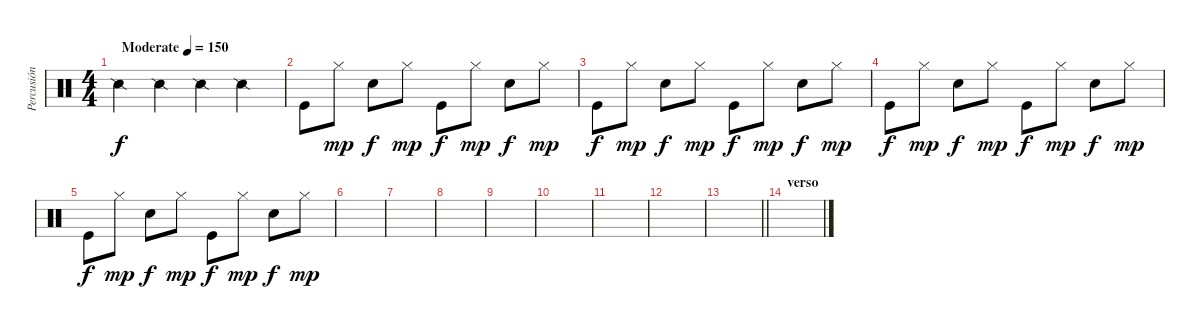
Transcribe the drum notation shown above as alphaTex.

\track ("Percusión" "Percusión") {instrument percussion}
\staff {score}
\articulation defaults
\ts (4 4)
\tempo (150 "Moderate")
\clef neutral
\ks c "Snare (side stick) 2".4{dy f} "Snare (side stick) 2".4 "Snare (side stick) 2".4 "Snare (side stick) 2".4
|
"Kick (hit)".8 "Hi-Hat (closed)".8{dy mp} "Snare (hit) 2".8{dy f} "Hi-Hat (closed)".8{dy mp} "Kick (hit)".8{dy f} "Hi-Hat (closed)".8{dy mp} "Snare (hit) 2".8{dy f} "Hi-Hat (closed)".8{dy mp} |
"Kick (hit)".8{dy f} "Hi-Hat (closed)".8{dy mp} "Snare (hit) 2".8{dy f} "Hi-Hat (closed)".8{dy mp} "Kick (hit)".8{dy f} "Hi-Hat (closed)".8{dy mp} "Snare (hit) 2".8{dy f} "Hi-Hat (closed)".8{dy mp} |
"Kick (hit)".8{dy f} "Hi-Hat (closed)".8{dy mp} "Snare (hit) 2".8{dy f} "Hi-Hat (closed)".8{dy mp} "Kick (hit)".8{dy f} "Hi-Hat (closed)".8{dy mp} "Snare (hit) 2".8{dy f} "Hi-Hat (closed)".8{dy mp} |
"Kick (hit)".8{dy f} "Hi-Hat (closed)".8{dy mp} "Snare (hit) 2".8{dy f} "Hi-Hat (closed)".8{dy mp} "Kick (hit)".8{dy f} "Hi-Hat (closed)".8{dy mp} "Snare (hit) 2".8{dy f} "Hi-Hat (closed)".8{dy mp} |
|
|
|
|
|
|
|
\barLineRight lightlight
|
\section ("" "verso")
